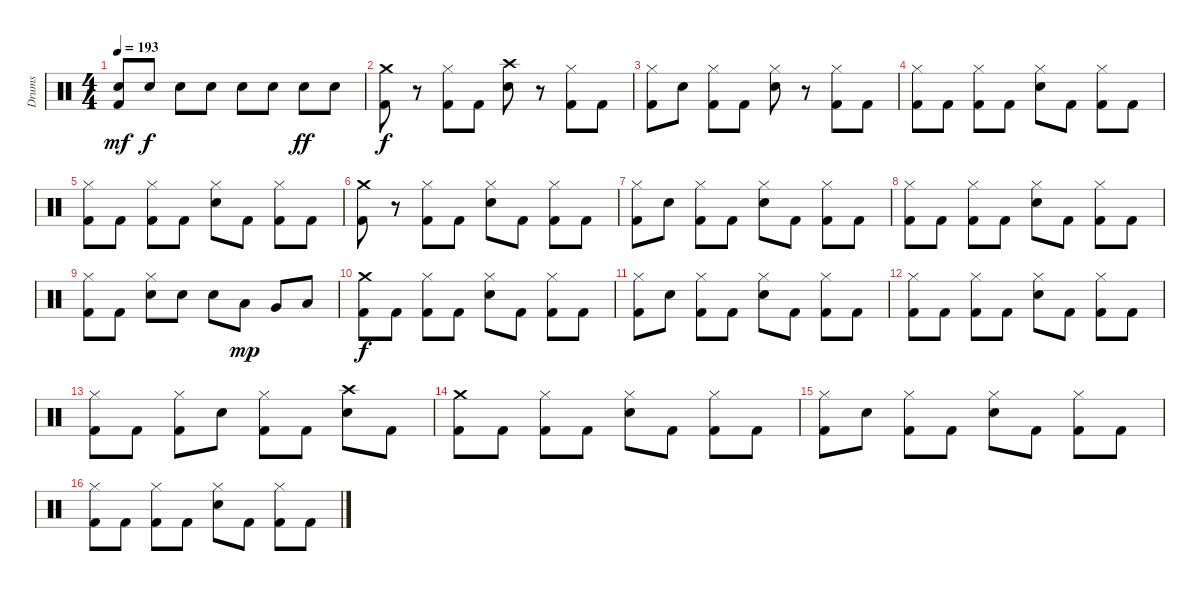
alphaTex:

\track ("Drums" "Drums") {instrument percussion}
\staff {score}
\articulation defaults
\ts (4 4)
\tempo 193
\clef neutral
\ks c
("Snare (hit) 2" "Kick (hit) 2").8{dy mf} "Snare (hit) 2".8{dy f} "Snare (hit) 2".8 "Snare (hit) 2".8 "Snare (hit) 2".8 "Snare (hit) 2".8 "Snare (hit) 2".8{dy ff} "Snare (hit) 2".8 |
("Crash medium (hit)" "Kick (hit) 2").8{dy f} r.8 ("Hi-Hat (closed)" "Kick (hit) 2").8 "Kick (hit) 2".8 ("Crash high (hit)" "Snare (hit) 2").8 r.8 ("Hi-Hat (closed)" "Kick (hit) 2").8 "Kick (hit) 2".8 |
("Hi-Hat (closed)" "Kick (hit) 2").8 "Snare (hit) 2".8 ("Hi-Hat (closed)" "Kick (hit) 2").8 "Kick (hit) 2".8 ("Hi-Hat (closed)" "Snare (hit) 2").8 r.8 ("Hi-Hat (closed)" "Kick (hit) 2").8 "Kick (hit) 2".8 |
("Hi-Hat (closed)" "Kick (hit) 2").8 "Kick (hit) 2".8 ("Hi-Hat (closed)" "Kick (hit) 2").8 "Kick (hit) 2".8 ("Hi-Hat (closed)" "Snare (hit) 2").8 "Kick (hit) 2".8 ("Hi-Hat (closed)" "Kick (hit) 2").8 "Kick (hit) 2".8 |
("Hi-Hat (closed)" "Kick (hit) 2").8 "Kick (hit) 2".8 ("Hi-Hat (closed)" "Kick (hit) 2").8 "Kick (hit) 2".8 ("Hi-Hat (closed)" "Snare (hit) 2").8 "Kick (hit) 2".8 ("Hi-Hat (closed)" "Kick (hit) 2").8 "Kick (hit) 2".8 |
("Crash medium (hit)" "Kick (hit) 2").8 r.8 ("Hi-Hat (closed)" "Kick (hit) 2").8 "Kick (hit) 2".8 ("Hi-Hat (closed)" "Snare (hit) 2").8 "Kick (hit) 2".8 ("Hi-Hat (closed)" "Kick (hit) 2").8 "Kick (hit) 2".8 |
("Hi-Hat (closed)" "Kick (hit) 2").8 "Snare (hit) 2".8 ("Hi-Hat (closed)" "Kick (hit) 2").8 "Kick (hit) 2".8 ("Hi-Hat (closed)" "Snare (hit) 2").8 "Kick (hit) 2".8 ("Hi-Hat (closed)" "Kick (hit) 2").8 "Kick (hit) 2".8 |
("Hi-Hat (closed)" "Kick (hit) 2").8 "Kick (hit) 2".8 ("Hi-Hat (closed)" "Kick (hit) 2").8 "Kick (hit) 2".8 ("Hi-Hat (closed)" "Snare (hit) 2").8 "Kick (hit) 2".8 ("Hi-Hat (closed)" "Kick (hit) 2").8 "Kick (hit) 2".8 |
("Hi-Hat (closed)" "Kick (hit) 2").8 "Kick (hit) 2".8 ("Hi-Hat (closed)" "Snare (hit) 2").8 "Snare (hit) 2".8 "Snare (hit) 2".8 "Low Tom (hit)".8{dy mp} "Very Low Tom (hit)".8 "Low Floor Tom (hit)".8 |
("Crash medium (hit)" "Kick (hit) 2").8{dy f} "Kick (hit) 2".8 ("Hi-Hat (closed)" "Kick (hit) 2").8 "Kick (hit) 2".8 ("Hi-Hat (closed)" "Snare (hit) 2").8 "Kick (hit) 2".8 ("Hi-Hat (closed)" "Kick (hit) 2").8 "Kick (hit) 2".8 |
("Hi-Hat (closed)" "Kick (hit) 2").8 "Snare (hit) 2".8 ("Hi-Hat (closed)" "Kick (hit) 2").8 "Kick (hit) 2".8 ("Hi-Hat (closed)" "Snare (hit) 2").8 "Kick (hit) 2".8 ("Hi-Hat (closed)" "Kick (hit) 2").8 "Kick (hit) 2".8 |
("Hi-Hat (closed)" "Kick (hit) 2").8 "Kick (hit) 2".8 ("Hi-Hat (closed)" "Kick (hit) 2").8 "Kick (hit) 2".8 ("Hi-Hat (closed)" "Snare (hit) 2").8 "Kick (hit) 2".8 ("Hi-Hat (closed)" "Kick (hit) 2").8 "Kick (hit) 2".8 |
("Hi-Hat (closed)" "Kick (hit) 2").8 "Kick (hit) 2".8 ("Hi-Hat (closed)" "Kick (hit) 2").8 "Snare (hit) 2".8 ("Hi-Hat (closed)" "Kick (hit) 2").8 "Kick (hit) 2".8 ("Crash high (hit)" "Snare (hit) 2").8 "Kick (hit) 2".8 |
("Crash medium (hit)" "Kick (hit) 2").8 "Kick (hit) 2".8 ("Hi-Hat (closed)" "Kick (hit) 2").8 "Kick (hit) 2".8 ("Hi-Hat (closed)" "Snare (hit) 2").8 "Kick (hit) 2".8 ("Hi-Hat (closed)" "Kick (hit) 2").8 "Kick (hit) 2".8 |
("Hi-Hat (closed)" "Kick (hit) 2").8 "Snare (hit) 2".8 ("Hi-Hat (closed)" "Kick (hit) 2").8 "Kick (hit) 2".8 ("Hi-Hat (closed)" "Snare (hit) 2").8 "Kick (hit) 2".8 ("Hi-Hat (closed)" "Kick (hit) 2").8 "Kick (hit) 2".8 |
("Hi-Hat (closed)" "Kick (hit) 2").8 "Kick (hit) 2".8 ("Hi-Hat (closed)" "Kick (hit) 2").8 "Kick (hit) 2".8 ("Hi-Hat (closed)" "Snare (hit) 2").8 "Kick (hit) 2".8 ("Hi-Hat (closed)" "Kick (hit) 2").8 "Kick (hit) 2".8
